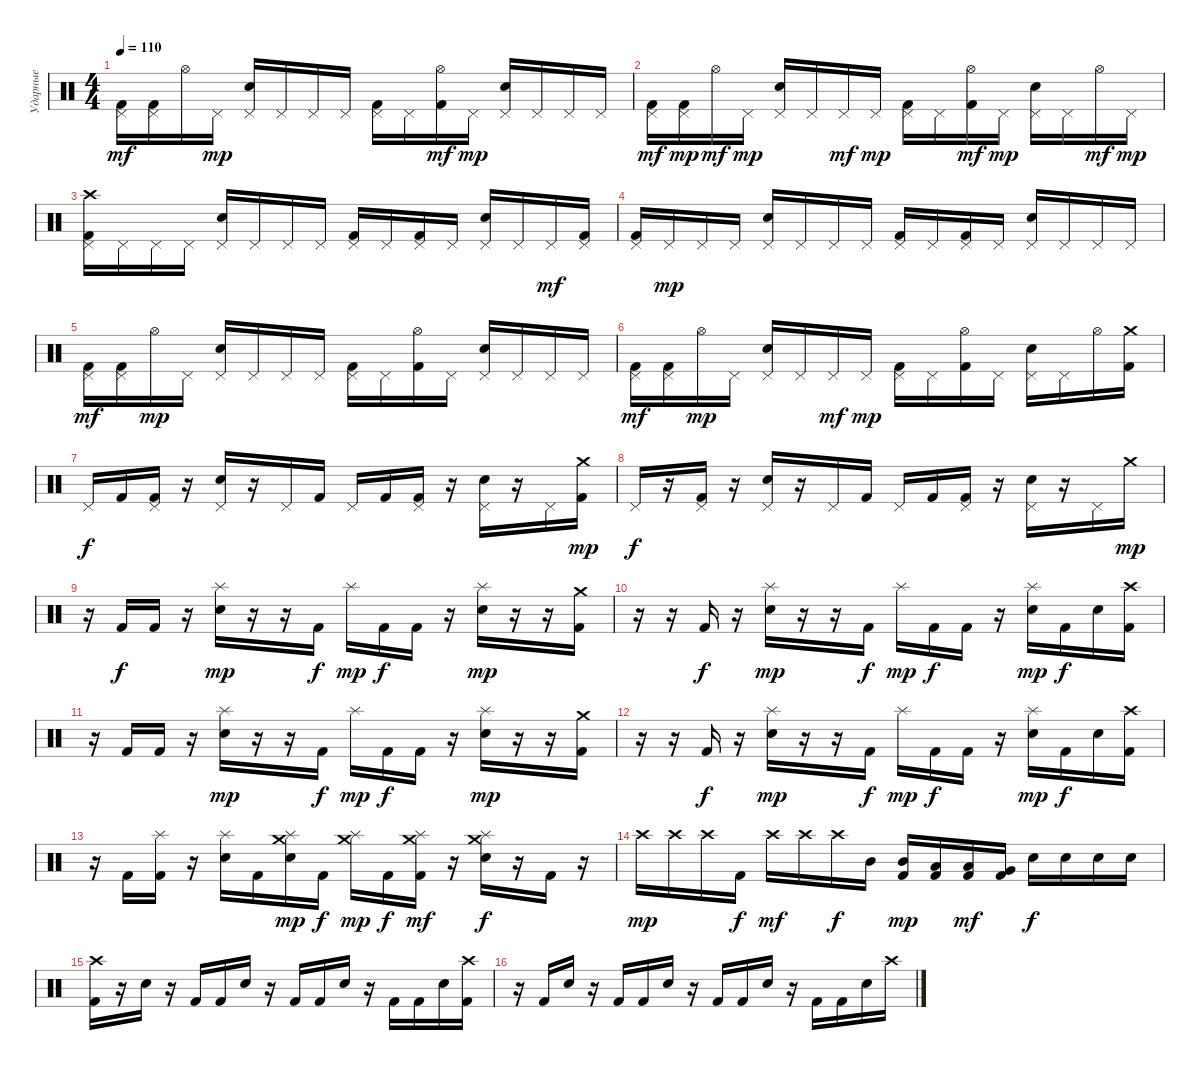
\track ("Ударные" "Ударные") {instrument percussion}
\staff {score}
\articulation defaults
\ts (4 4)
\tempo 110
\clef neutral
\ks c
("Pedal Hi-Hat (hit)" "Kick (hit) 2").16{dy mf} ("Pedal Hi-Hat (hit)" "Kick (hit) 2").16 "Hi-Hat (open)".16 "Pedal Hi-Hat (hit)".16{dy mp} ("Pedal Hi-Hat (hit)" "Electric Snare (hit)").16 "Pedal Hi-Hat (hit)".16 "Pedal Hi-Hat (hit)".16 "Pedal Hi-Hat (hit)".16 ("Pedal Hi-Hat (hit)" "Kick (hit) 2").16 "Pedal Hi-Hat (hit)".16 ("Hi-Hat (open)" "Kick (hit) 2").16{dy mf} "Pedal Hi-Hat (hit)".16{dy mp} ("Pedal Hi-Hat (hit)" "Electric Snare (hit)").16 "Pedal Hi-Hat (hit)".16 "Pedal Hi-Hat (hit)".16 "Pedal Hi-Hat (hit)".16 |
("Pedal Hi-Hat (hit)" "Kick (hit) 2").16{dy mf} ("Pedal Hi-Hat (hit)" "Kick (hit) 2").16{dy mp} "Hi-Hat (open)".16{dy mf} "Pedal Hi-Hat (hit)".16{dy mp} ("Pedal Hi-Hat (hit)" "Electric Snare (hit)").16 "Pedal Hi-Hat (hit)".16 "Pedal Hi-Hat (hit)".16{dy mf} "Pedal Hi-Hat (hit)".16{dy mp} ("Pedal Hi-Hat (hit)" "Kick (hit) 2").16 "Pedal Hi-Hat (hit)".16 ("Hi-Hat (open)" "Kick (hit) 2").16{dy mf} "Pedal Hi-Hat (hit)".16{dy mp} ("Pedal Hi-Hat (hit)" "Electric Snare (hit)").16 "Pedal Hi-Hat (hit)".16 "Hi-Hat (open)".16{dy mf} "Pedal Hi-Hat (hit)".16{dy mp} |
("Pedal Hi-Hat (hit)" "Crash high (hit)" "Kick (hit) 2").16 "Pedal Hi-Hat (hit)".16 "Pedal Hi-Hat (hit)".16 "Pedal Hi-Hat (hit)".16 ("Pedal Hi-Hat (hit)" "Electric Snare (hit)").16 "Pedal Hi-Hat (hit)".16 "Pedal Hi-Hat (hit)".16 "Pedal Hi-Hat (hit)".16 ("Pedal Hi-Hat (hit)" "Kick (hit) 2").16 "Pedal Hi-Hat (hit)".16 ("Pedal Hi-Hat (hit)" "Kick (hit) 2").16 "Pedal Hi-Hat (hit)".16 ("Pedal Hi-Hat (hit)" "Electric Snare (hit)").16 "Pedal Hi-Hat (hit)".16 "Pedal Hi-Hat (hit)".16{dy mf} ("Pedal Hi-Hat (hit)" "Kick (hit) 2").16 |
("Pedal Hi-Hat (hit)" "Kick (hit) 2").16 "Pedal Hi-Hat (hit)".16{dy mp} "Pedal Hi-Hat (hit)".16 "Pedal Hi-Hat (hit)".16 ("Pedal Hi-Hat (hit)" "Electric Snare (hit)").16 "Pedal Hi-Hat (hit)".16 "Pedal Hi-Hat (hit)".16 "Pedal Hi-Hat (hit)".16 ("Pedal Hi-Hat (hit)" "Kick (hit) 2").16 "Pedal Hi-Hat (hit)".16 ("Pedal Hi-Hat (hit)" "Kick (hit) 2").16 "Pedal Hi-Hat (hit)".16 ("Pedal Hi-Hat (hit)" "Electric Snare (hit)").16 "Pedal Hi-Hat (hit)".16 "Pedal Hi-Hat (hit)".16 "Pedal Hi-Hat (hit)".16 |
("Pedal Hi-Hat (hit)" "Kick (hit) 2").16{dy mf} ("Pedal Hi-Hat (hit)" "Kick (hit) 2").16 "Hi-Hat (open)".16{dy mp} "Pedal Hi-Hat (hit)".16 ("Pedal Hi-Hat (hit)" "Electric Snare (hit)").16 "Pedal Hi-Hat (hit)".16 "Pedal Hi-Hat (hit)".16 "Pedal Hi-Hat (hit)".16 ("Pedal Hi-Hat (hit)" "Kick (hit) 2").16 "Pedal Hi-Hat (hit)".16 ("Hi-Hat (open)" "Kick (hit) 2").16 "Pedal Hi-Hat (hit)".16 ("Pedal Hi-Hat (hit)" "Electric Snare (hit)").16 "Pedal Hi-Hat (hit)".16 "Pedal Hi-Hat (hit)".16 "Pedal Hi-Hat (hit)".16 |
("Pedal Hi-Hat (hit)" "Kick (hit) 2").16{dy mf} ("Pedal Hi-Hat (hit)" "Kick (hit) 2").16 "Hi-Hat (open)".16{dy mp} "Pedal Hi-Hat (hit)".16 ("Pedal Hi-Hat (hit)" "Electric Snare (hit)").16 "Pedal Hi-Hat (hit)".16 "Pedal Hi-Hat (hit)".16{dy mf} "Pedal Hi-Hat (hit)".16{dy mp} ("Pedal Hi-Hat (hit)" "Kick (hit) 2").16 "Pedal Hi-Hat (hit)".16 ("Hi-Hat (open)" "Kick (hit) 2").16 "Pedal Hi-Hat (hit)".16 ("Pedal Hi-Hat (hit)" "Electric Snare (hit)").16 "Pedal Hi-Hat (hit)".16 "Hi-Hat (open)".16 ("Crash medium (hit)" "Kick (hit) 2").16 |
"Pedal Hi-Hat (hit)".16{dy f} "Kick (hit) 2".16 ("Pedal Hi-Hat (hit)" "Kick (hit) 2").16 r.16 ("Pedal Hi-Hat (hit)" "Electric Snare (hit)").16 r.16 "Pedal Hi-Hat (hit)".16 "Kick (hit) 2".16 "Pedal Hi-Hat (hit)".16 "Kick (hit) 2".16 ("Pedal Hi-Hat (hit)" "Kick (hit) 2").16 r.16 ("Pedal Hi-Hat (hit)" "Electric Snare (hit)").16 r.16 "Pedal Hi-Hat (hit)".16 ("Crash medium (hit)" "Kick (hit) 2").16{dy mp} |
"Pedal Hi-Hat (hit)".16{dy f} r.16 ("Pedal Hi-Hat (hit)" "Kick (hit) 2").16 r.16 ("Pedal Hi-Hat (hit)" "Electric Snare (hit)").16 r.16 "Pedal Hi-Hat (hit)".16 "Kick (hit) 2".16 "Pedal Hi-Hat (hit)".16 "Kick (hit) 2".16 ("Pedal Hi-Hat (hit)" "Kick (hit) 2").16 r.16 ("Pedal Hi-Hat (hit)" "Electric Snare (hit)").16 r.16 "Pedal Hi-Hat (hit)".16 "Crash medium (hit)".16{dy mp} |
r.16 "Kick (hit) 2".16{dy f} "Kick (hit) 2".16 r.16 ("Splash (hit)" "Electric Snare (hit)").16{dy mp} r.16 r.16 "Kick (hit) 2".16{dy f} "Splash (hit)".16{dy mp} "Kick (hit) 2".16{dy f} "Kick (hit) 2".16 r.16 ("Splash (hit)" "Electric Snare (hit)").16{dy mp} r.16 r.16 ("Crash medium (hit)" "Kick (hit) 2").16 |
r.16 r.16 "Kick (hit) 2".16{dy f} r.16 ("Splash (hit)" "Electric Snare (hit)").16{dy mp} r.16 r.16 "Kick (hit) 2".16{dy f} "Splash (hit)".16{dy mp} "Kick (hit) 2".16{dy f} "Kick (hit) 2".16 r.16 ("Splash (hit)" "Electric Snare (hit)").16{dy mp} "Kick (hit) 2".16{dy f} "Electric Snare (hit)".16 ("Crash high (hit)" "Kick (hit) 2").16 |
r.16 "Kick (hit) 2".16 "Kick (hit) 2".16 r.16 ("Splash (hit)" "Electric Snare (hit)").16{dy mp} r.16 r.16 "Kick (hit) 2".16{dy f} "Splash (hit)".16{dy mp} "Kick (hit) 2".16{dy f} "Kick (hit) 2".16 r.16 ("Splash (hit)" "Electric Snare (hit)").16{dy mp} r.16 r.16 ("Crash medium (hit)" "Kick (hit) 2").16 |
r.16 r.16 "Kick (hit) 2".16{dy f} r.16 ("Splash (hit)" "Electric Snare (hit)").16{dy mp} r.16 r.16 "Kick (hit) 2".16{dy f} "Splash (hit)".16{dy mp} "Kick (hit) 2".16{dy f} "Kick (hit) 2".16 r.16 ("Splash (hit)" "Electric Snare (hit)").16{dy mp} "Kick (hit) 2".16{dy f} "Electric Snare (hit)".16 ("Crash high (hit)" "Kick (hit) 2").16 |
r.16 "Kick (hit) 2".16 ("Splash (hit)" "Kick (hit) 2").16 r.16 ("Splash (hit)" "Electric Snare (hit)").16 "Kick (hit) 2".16 ("Crash medium (hit)" "Splash (hit)" "Electric Snare (hit)").16{dy mp} "Kick (hit) 2".16{dy f} ("Crash medium (hit)" "Splash (hit)").16{dy mp} "Kick (hit) 2".16{dy f} ("Crash medium (hit)" "Splash (hit)" "Kick (hit) 2").16{dy mf} r.16 ("Crash medium (hit)" "Splash (hit)" "Electric Snare (hit)").16{dy f} r.16 "Kick (hit) 2".16 r.16 |
"Crash high (hit)".16{dy mp} "Crash high (hit)".16 "Crash high (hit)".16 "Kick (hit) 2".16{dy f} "Crash high (hit)".16{dy mf} "Crash high (hit)".16 "Crash high (hit)".16{dy f} "Mid Tom (hit)".16 ("Mid Tom (hit)" "Kick (hit) 2").16{dy mp} ("Low Tom (hit)" "Kick (hit) 2").16 ("Low Tom (hit)" "Kick (hit) 2").16{dy mf} ("Very Low Tom (hit)" "Kick (hit) 2").16 "Electric Snare (hit)".16{dy f} "Electric Snare (hit)".16 "Electric Snare (hit)".16 "Electric Snare (hit)".16 |
("Crash high (hit)" "Kick (hit) 2").16 r.16 "Electric Snare (hit)".16 r.16 "Kick (hit) 2".16 "Kick (hit) 2".16 "Electric Snare (hit)".16 r.16 "Kick (hit) 2".16 "Kick (hit) 2".16 "Electric Snare (hit)".16 r.16 "Kick (hit) 2".16 "Kick (hit) 2".16 "Electric Snare (hit)".16 ("Crash high (hit)" "Kick (hit) 2").16 |
r.16 "Kick (hit) 2".16 "Electric Snare (hit)".16 r.16 "Kick (hit) 2".16 "Kick (hit) 2".16 "Electric Snare (hit)".16 r.16 "Kick (hit) 2".16 "Kick (hit) 2".16 "Electric Snare (hit)".16 r.16 "Kick (hit) 2".16 "Kick (hit) 2".16 "Electric Snare (hit)".16 "Crash high (hit)".16
